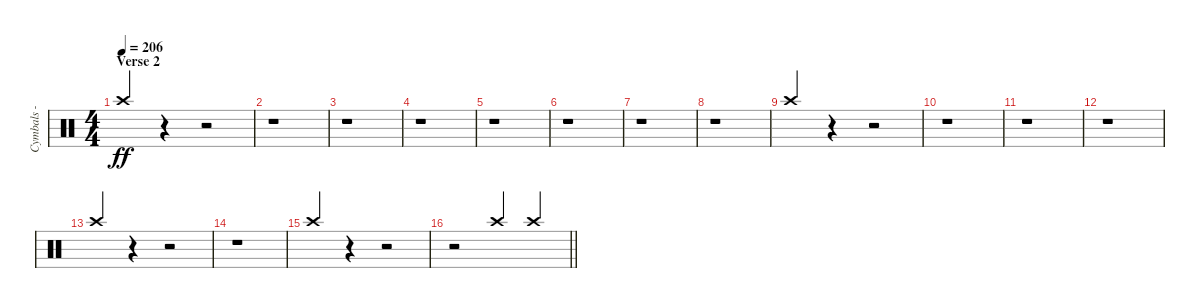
\track ("Cymbals - crash" "Cymbals - ") {instrument percussion}
\staff {score}
\articulation defaults
\ts (4 4)
\section ("" "Verse 2")
\tempo 206
\clef neutral
\ks c "Crash high (hit)".4{dy ff beam Up}
r.4 r.2 |
r.1 |
r.1 |
r.1 |
r.1 |
r.1 |
r.1 |
r.1 |
"Crash high (hit)".4{beam Up} r.4 r.2 |
r.1 |
r.1 |
r.1 |
"Crash high (hit)".4{beam Up} r.4 r.2 |
r.1 |
"Crash high (hit)".4{beam Up} r.4 r.2 |
\barLineRight lightlight
r.2 "Crash high (hit)".4{beam Up} "Crash high (hit)".4{beam Up}
